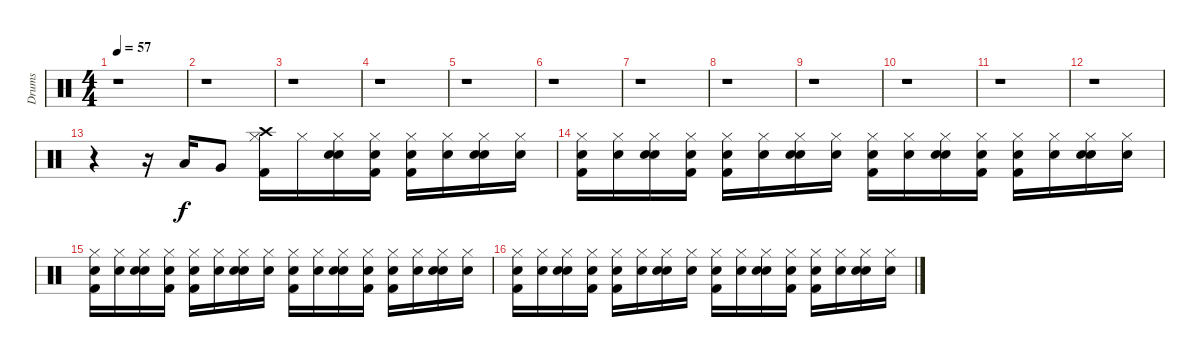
\track ("Drums" "Drums") {instrument percussion}
\staff {score}
\articulation defaults
\ts (4 4)
\tempo 57
\clef neutral
\ks c
r.1{dy f} |
r.1 |
r.1 |
r.1 |
r.1 |
r.1 |
r.1 |
r.1 |
r.1 |
r.1 |
r.1 |
r.1 |
r.4 r.16 "Low Floor Tom (hit)".16 "Very Low Tom (hit)".8 ("Kick (hit) 2" "Crash high (hit)" "Hi-Hat (closed)").16 "Hi-Hat (closed)".16 ("Snare (hit)" "Electric Snare (hit)" "Hi-Hat (closed)").16 ("Snare (hit)" "Kick (hit) 2" "Hi-Hat (closed)").16 ("Snare (hit)" "Hi-Hat (closed)" "Kick (hit) 2").16 ("Snare (hit)" "Hi-Hat (closed)").16 ("Snare (hit)" "Electric Snare (hit)" "Hi-Hat (closed)").16 ("Snare (hit)" "Hi-Hat (closed)").16 |
("Snare (hit)" "Kick (hit) 2" "Hi-Hat (closed)").16 ("Snare (hit)" "Hi-Hat (closed)").16 ("Snare (hit)" "Electric Snare (hit)" "Hi-Hat (closed)").16 ("Snare (hit)" "Kick (hit) 2" "Hi-Hat (closed)").16 ("Snare (hit)" "Kick (hit) 2" "Hi-Hat (closed)").16 ("Snare (hit)" "Hi-Hat (closed)").16 ("Snare (hit)" "Electric Snare (hit)" "Hi-Hat (closed)").16 ("Snare (hit)" "Hi-Hat (closed)").16 ("Snare (hit)" "Kick (hit) 2" "Hi-Hat (closed)").16 ("Snare (hit)" "Hi-Hat (closed)").16 ("Snare (hit)" "Electric Snare (hit)" "Hi-Hat (closed)").16 ("Snare (hit)" "Kick (hit) 2" "Hi-Hat (closed)").16 ("Snare (hit)" "Hi-Hat (closed)" "Kick (hit) 2").16 ("Snare (hit)" "Hi-Hat (closed)").16 ("Snare (hit)" "Electric Snare (hit)" "Hi-Hat (closed)").16 ("Snare (hit)" "Hi-Hat (closed)").16 |
("Snare (hit)" "Kick (hit) 2" "Hi-Hat (closed)").16 ("Snare (hit)" "Hi-Hat (closed)").16 ("Snare (hit)" "Electric Snare (hit)" "Hi-Hat (closed)").16 ("Snare (hit)" "Kick (hit) 2" "Hi-Hat (closed)").16 ("Snare (hit)" "Kick (hit) 2" "Hi-Hat (closed)").16 ("Snare (hit)" "Hi-Hat (closed)").16 ("Snare (hit)" "Electric Snare (hit)" "Hi-Hat (closed)").16 ("Snare (hit)" "Hi-Hat (closed)").16 ("Snare (hit)" "Kick (hit) 2" "Hi-Hat (closed)").16 ("Snare (hit)" "Hi-Hat (closed)").16 ("Snare (hit)" "Electric Snare (hit)" "Hi-Hat (closed)").16 ("Snare (hit)" "Kick (hit) 2" "Hi-Hat (closed)").16 ("Snare (hit)" "Hi-Hat (closed)" "Kick (hit) 2").16 ("Snare (hit)" "Hi-Hat (closed)").16 ("Snare (hit)" "Electric Snare (hit)" "Hi-Hat (closed)").16 ("Snare (hit)" "Hi-Hat (closed)").16 |
("Snare (hit)" "Kick (hit) 2" "Hi-Hat (closed)").16 ("Snare (hit)" "Hi-Hat (closed)").16 ("Snare (hit)" "Electric Snare (hit)" "Hi-Hat (closed)").16 ("Snare (hit)" "Kick (hit) 2" "Hi-Hat (closed)").16 ("Snare (hit)" "Kick (hit) 2" "Hi-Hat (closed)").16 ("Snare (hit)" "Hi-Hat (closed)").16 ("Snare (hit)" "Electric Snare (hit)" "Hi-Hat (closed)").16 ("Snare (hit)" "Hi-Hat (closed)").16 ("Snare (hit)" "Kick (hit) 2" "Hi-Hat (closed)").16 ("Snare (hit)" "Hi-Hat (closed)").16 ("Snare (hit)" "Electric Snare (hit)" "Hi-Hat (closed)").16 ("Snare (hit)" "Kick (hit) 2" "Hi-Hat (closed)").16 ("Snare (hit)" "Hi-Hat (closed)" "Kick (hit) 2").16 ("Snare (hit)" "Hi-Hat (closed)").16 ("Snare (hit)" "Electric Snare (hit)" "Hi-Hat (closed)").16 ("Snare (hit)" "Hi-Hat (closed)").16
